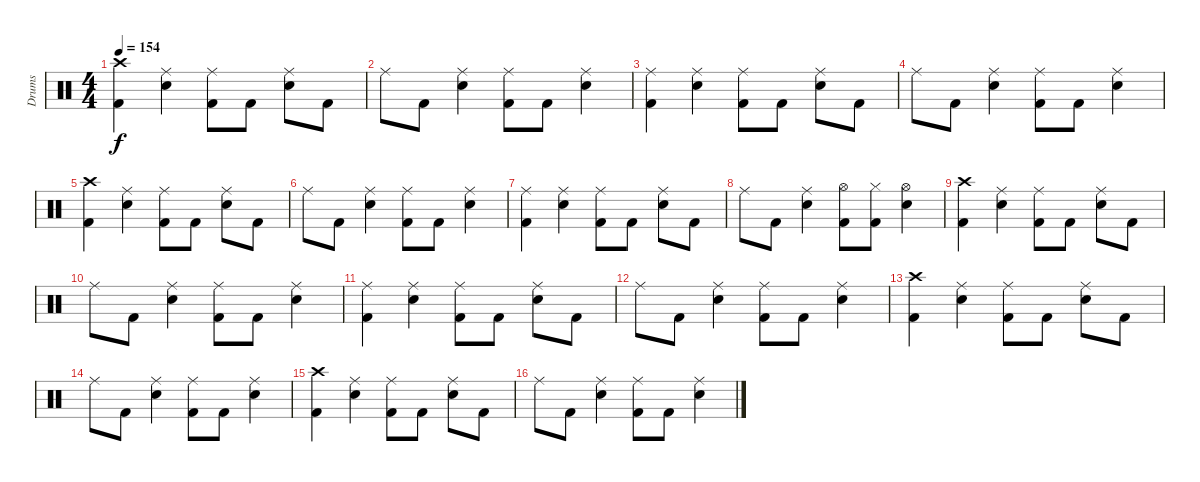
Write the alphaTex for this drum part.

\track ("Drums" "Drums") {instrument percussion}
\staff {score}
\articulation defaults
\ts (4 4)
\tempo 154
\clef neutral
\ks c
("Crash high (hit)" "Kick (hit) 2").4{dy f} ("Ride (middle)" "Snare (hit) 2").4 ("Ride (middle)" "Kick (hit) 2").8 "Kick (hit) 2".8 ("Ride (middle)" "Snare (hit) 2").8 "Kick (hit) 2".8 |
"Ride (middle)".8 "Kick (hit) 2".8 ("Ride (middle)" "Snare (hit) 2").4 ("Ride (middle)" "Kick (hit) 2").8 "Kick (hit) 2".8 ("Ride (middle)" "Snare (hit) 2").4 |
("Ride (middle)" "Kick (hit) 2").4 ("Ride (middle)" "Snare (hit) 2").4 ("Ride (middle)" "Kick (hit) 2").8 "Kick (hit) 2".8 ("Ride (middle)" "Snare (hit) 2").8 "Kick (hit) 2".8 |
"Ride (middle)".8 "Kick (hit) 2".8 ("Ride (middle)" "Snare (hit) 2").4 ("Ride (middle)" "Kick (hit) 2").8 "Kick (hit) 2".8 ("Ride (middle)" "Snare (hit) 2").4 |
("Crash high (hit)" "Kick (hit) 2").4 ("Ride (middle)" "Snare (hit) 2").4 ("Ride (middle)" "Kick (hit) 2").8 "Kick (hit) 2".8 ("Ride (middle)" "Snare (hit) 2").8 "Kick (hit) 2".8 |
"Ride (middle)".8 "Kick (hit) 2".8 ("Ride (middle)" "Snare (hit) 2").4 ("Ride (middle)" "Kick (hit) 2").8 "Kick (hit) 2".8 ("Ride (middle)" "Snare (hit) 2").4 |
("Ride (middle)" "Kick (hit) 2").4 ("Ride (middle)" "Snare (hit) 2").4 ("Ride (middle)" "Kick (hit) 2").8 "Kick (hit) 2".8 ("Ride (middle)" "Snare (hit) 2").8 "Kick (hit) 2".8 |
"Ride (middle)".8 "Kick (hit) 2".8 ("Ride (middle)" "Snare (hit) 2").4 ("Hi-Hat (open)" "Kick (hit) 2").8 ("Hi-Hat (closed)" "Kick (hit) 2").8 ("Hi-Hat (open)" "Snare (hit) 2").4 |
("Crash high (hit)" "Kick (hit) 2").4 ("Ride (middle)" "Snare (hit) 2").4 ("Ride (middle)" "Kick (hit) 2").8 "Kick (hit) 2".8 ("Ride (middle)" "Snare (hit) 2").8 "Kick (hit) 2".8 |
"Ride (middle)".8 "Kick (hit) 2".8 ("Ride (middle)" "Snare (hit) 2").4 ("Ride (middle)" "Kick (hit) 2").8 "Kick (hit) 2".8 ("Ride (middle)" "Snare (hit) 2").4 |
("Ride (middle)" "Kick (hit) 2").4 ("Ride (middle)" "Snare (hit) 2").4 ("Ride (middle)" "Kick (hit) 2").8 "Kick (hit) 2".8 ("Ride (middle)" "Snare (hit) 2").8 "Kick (hit) 2".8 |
"Ride (middle)".8 "Kick (hit) 2".8 ("Ride (middle)" "Snare (hit) 2").4 ("Ride (middle)" "Kick (hit) 2").8 "Kick (hit) 2".8 ("Ride (middle)" "Snare (hit) 2").4 |
("Crash high (hit)" "Kick (hit) 2").4 ("Ride (middle)" "Snare (hit) 2").4 ("Ride (middle)" "Kick (hit) 2").8 "Kick (hit) 2".8 ("Ride (middle)" "Snare (hit) 2").8 "Kick (hit) 2".8 |
"Ride (middle)".8 "Kick (hit) 2".8 ("Ride (middle)" "Snare (hit) 2").4 ("Ride (middle)" "Kick (hit) 2").8 "Kick (hit) 2".8 ("Ride (middle)" "Snare (hit) 2").4 |
("Crash high (hit)" "Kick (hit) 2").4 ("Ride (middle)" "Snare (hit) 2").4 ("Ride (middle)" "Kick (hit) 2").8 "Kick (hit) 2".8 ("Ride (middle)" "Snare (hit) 2").8 "Kick (hit) 2".8 |
"Ride (middle)".8 "Kick (hit) 2".8 ("Ride (middle)" "Snare (hit) 2").4 ("Ride (middle)" "Kick (hit) 2").8 "Kick (hit) 2".8 ("Ride (middle)" "Snare (hit) 2").4
